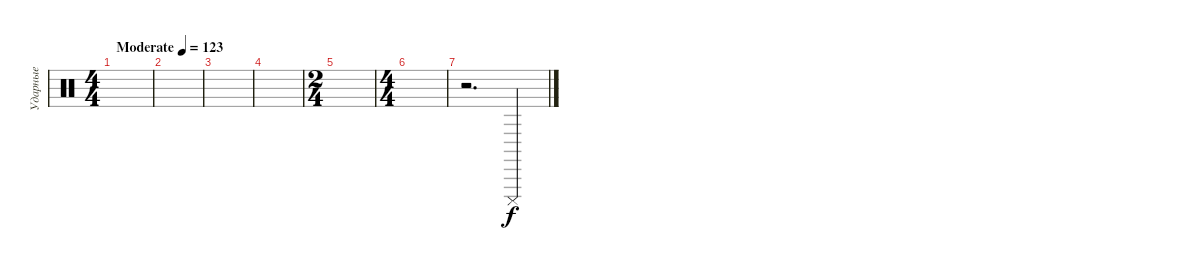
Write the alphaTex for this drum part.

\track ("Ударные" "Ударные") {instrument percussion}
\staff {score}
\articulation defaults
\ts (4 4)
\tempo (123 "Moderate")
\clef neutral
\ks c
|
|
|
|
\ts (2 4)
|
\ts (4 4)
|
r.2{d} "Cuica (mute)".4
